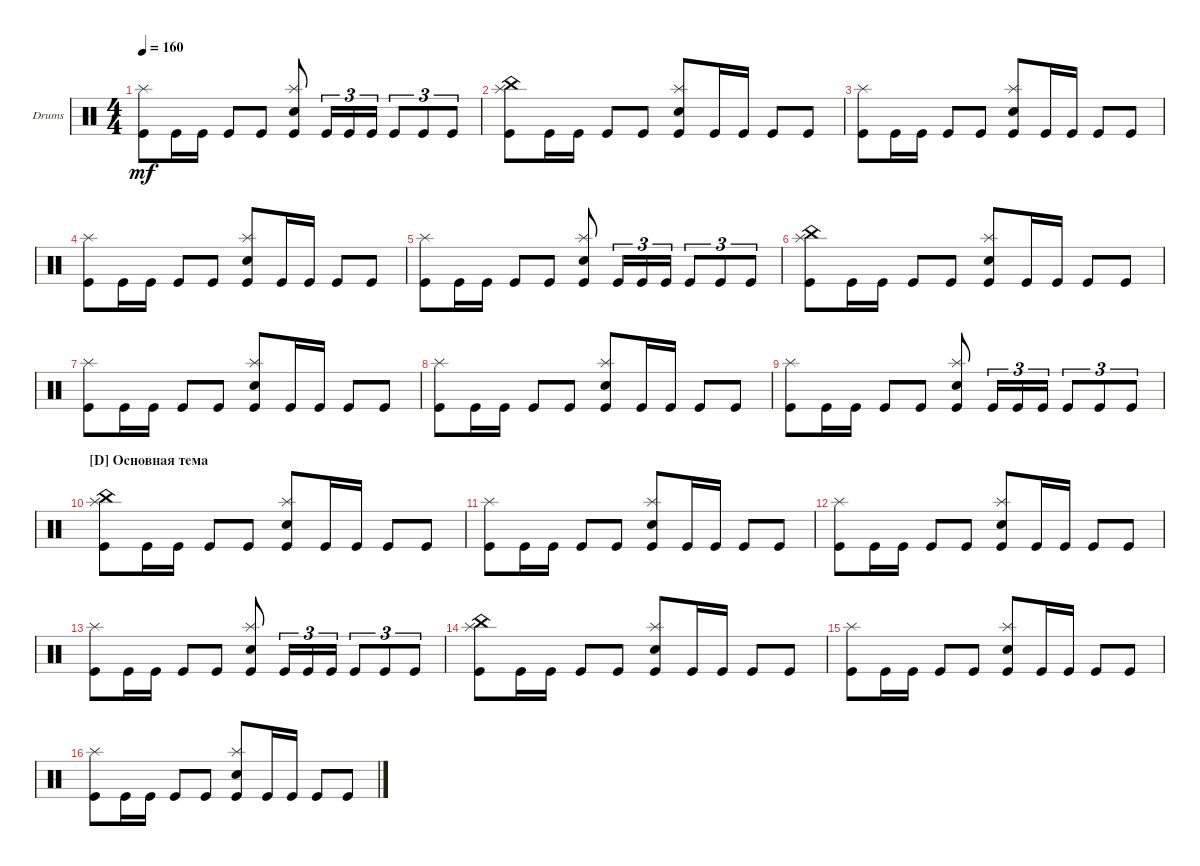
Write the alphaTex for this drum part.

\defaultSystemsLayout 4
\bracketExtendMode groupsimilarinstruments
\firstSystemTrackNameOrientation horizontal
\otherSystemsTrackNameOrientation horizontal
\track ("Drumkit" "Drums") {instrument percussion}
\staff {score}
\articulation defaults
\ts (4 4)
\tempo 160
\clef neutral
\ks c
("Kick (hit)" "Splash (hit)").8{dy mf} "Kick (hit)".16 "Kick (hit)".16 "Kick (hit)".8 "Kick (hit)".8 ("Kick (hit)" "Snare (hit) 2" "Splash (hit)").8 "Kick (hit)".16{tu (3 2)} "Kick (hit)".16{tu (3 2)} "Kick (hit)".16{tu (3 2)} "Kick (hit)".8{tu (3 2)} "Kick (hit)".8{tu (3 2)} "Kick (hit)".8{tu (3 2)} |
("Kick (hit)" "China (hit)" "Splash (hit)").8 "Kick (hit)".16 "Kick (hit)".16 "Kick (hit)".8 "Kick (hit)".8 ("Kick (hit)" "Snare (hit) 2" "Splash (hit)").8 "Kick (hit)".16 "Kick (hit)".16 "Kick (hit)".8 "Kick (hit)".8 |
("Kick (hit)" "Splash (hit)").8 "Kick (hit)".16 "Kick (hit)".16 "Kick (hit)".8 "Kick (hit)".8 ("Kick (hit)" "Snare (hit) 2" "Splash (hit)").8 "Kick (hit)".16 "Kick (hit)".16 "Kick (hit)".8 "Kick (hit)".8 |
("Kick (hit)" "Splash (hit)").8 "Kick (hit)".16 "Kick (hit)".16 "Kick (hit)".8 "Kick (hit)".8 ("Kick (hit)" "Snare (hit) 2" "Splash (hit)").8 "Kick (hit)".16 "Kick (hit)".16 "Kick (hit)".8 "Kick (hit)".8 |
("Kick (hit)" "Splash (hit)").8 "Kick (hit)".16 "Kick (hit)".16 "Kick (hit)".8 "Kick (hit)".8 ("Kick (hit)" "Snare (hit) 2" "Splash (hit)").8 "Kick (hit)".16{tu (3 2)} "Kick (hit)".16{tu (3 2)} "Kick (hit)".16{tu (3 2)} "Kick (hit)".8{tu (3 2)} "Kick (hit)".8{tu (3 2)} "Kick (hit)".8{tu (3 2)} |
("Kick (hit)" "China (hit)" "Splash (hit)").8 "Kick (hit)".16 "Kick (hit)".16 "Kick (hit)".8 "Kick (hit)".8 ("Kick (hit)" "Snare (hit) 2" "Splash (hit)").8 "Kick (hit)".16 "Kick (hit)".16 "Kick (hit)".8 "Kick (hit)".8 |
("Kick (hit)" "Splash (hit)").8 "Kick (hit)".16 "Kick (hit)".16 "Kick (hit)".8 "Kick (hit)".8 ("Kick (hit)" "Snare (hit) 2" "Splash (hit)").8 "Kick (hit)".16 "Kick (hit)".16 "Kick (hit)".8 "Kick (hit)".8 |
("Kick (hit)" "Splash (hit)").8 "Kick (hit)".16 "Kick (hit)".16 "Kick (hit)".8 "Kick (hit)".8 ("Kick (hit)" "Snare (hit) 2" "Splash (hit)").8 "Kick (hit)".16 "Kick (hit)".16 "Kick (hit)".8 "Kick (hit)".8 |
("Kick (hit)" "Splash (hit)").8 "Kick (hit)".16 "Kick (hit)".16 "Kick (hit)".8 "Kick (hit)".8 ("Kick (hit)" "Snare (hit) 2" "Splash (hit)").8 "Kick (hit)".16{tu (3 2)} "Kick (hit)".16{tu (3 2)} "Kick (hit)".16{tu (3 2)} "Kick (hit)".8{tu (3 2)} "Kick (hit)".8{tu (3 2)} "Kick (hit)".8{tu (3 2)} |
\section ("D" "Основная тема")
("Kick (hit)" "China (hit)" "Splash (hit)").8 "Kick (hit)".16 "Kick (hit)".16 "Kick (hit)".8 "Kick (hit)".8 ("Kick (hit)" "Snare (hit) 2" "Splash (hit)").8 "Kick (hit)".16 "Kick (hit)".16 "Kick (hit)".8 "Kick (hit)".8 |
("Kick (hit)" "Splash (hit)").8 "Kick (hit)".16 "Kick (hit)".16 "Kick (hit)".8 "Kick (hit)".8 ("Kick (hit)" "Snare (hit) 2" "Splash (hit)").8 "Kick (hit)".16 "Kick (hit)".16 "Kick (hit)".8 "Kick (hit)".8 |
("Kick (hit)" "Splash (hit)").8 "Kick (hit)".16 "Kick (hit)".16 "Kick (hit)".8 "Kick (hit)".8 ("Kick (hit)" "Snare (hit) 2" "Splash (hit)").8 "Kick (hit)".16 "Kick (hit)".16 "Kick (hit)".8 "Kick (hit)".8 |
("Kick (hit)" "Splash (hit)").8 "Kick (hit)".16 "Kick (hit)".16 "Kick (hit)".8 "Kick (hit)".8 ("Kick (hit)" "Snare (hit) 2" "Splash (hit)").8 "Kick (hit)".16{tu (3 2)} "Kick (hit)".16{tu (3 2)} "Kick (hit)".16{tu (3 2)} "Kick (hit)".8{tu (3 2)} "Kick (hit)".8{tu (3 2)} "Kick (hit)".8{tu (3 2)} |
("Kick (hit)" "China (hit)" "Splash (hit)").8 "Kick (hit)".16 "Kick (hit)".16 "Kick (hit)".8 "Kick (hit)".8 ("Kick (hit)" "Snare (hit) 2" "Splash (hit)").8 "Kick (hit)".16 "Kick (hit)".16 "Kick (hit)".8 "Kick (hit)".8 |
("Kick (hit)" "Splash (hit)").8 "Kick (hit)".16 "Kick (hit)".16 "Kick (hit)".8 "Kick (hit)".8 ("Kick (hit)" "Snare (hit) 2" "Splash (hit)").8 "Kick (hit)".16 "Kick (hit)".16 "Kick (hit)".8 "Kick (hit)".8 |
("Kick (hit)" "Splash (hit)").8 "Kick (hit)".16 "Kick (hit)".16 "Kick (hit)".8 "Kick (hit)".8 ("Kick (hit)" "Snare (hit) 2" "Splash (hit)").8 "Kick (hit)".16 "Kick (hit)".16 "Kick (hit)".8 "Kick (hit)".8
